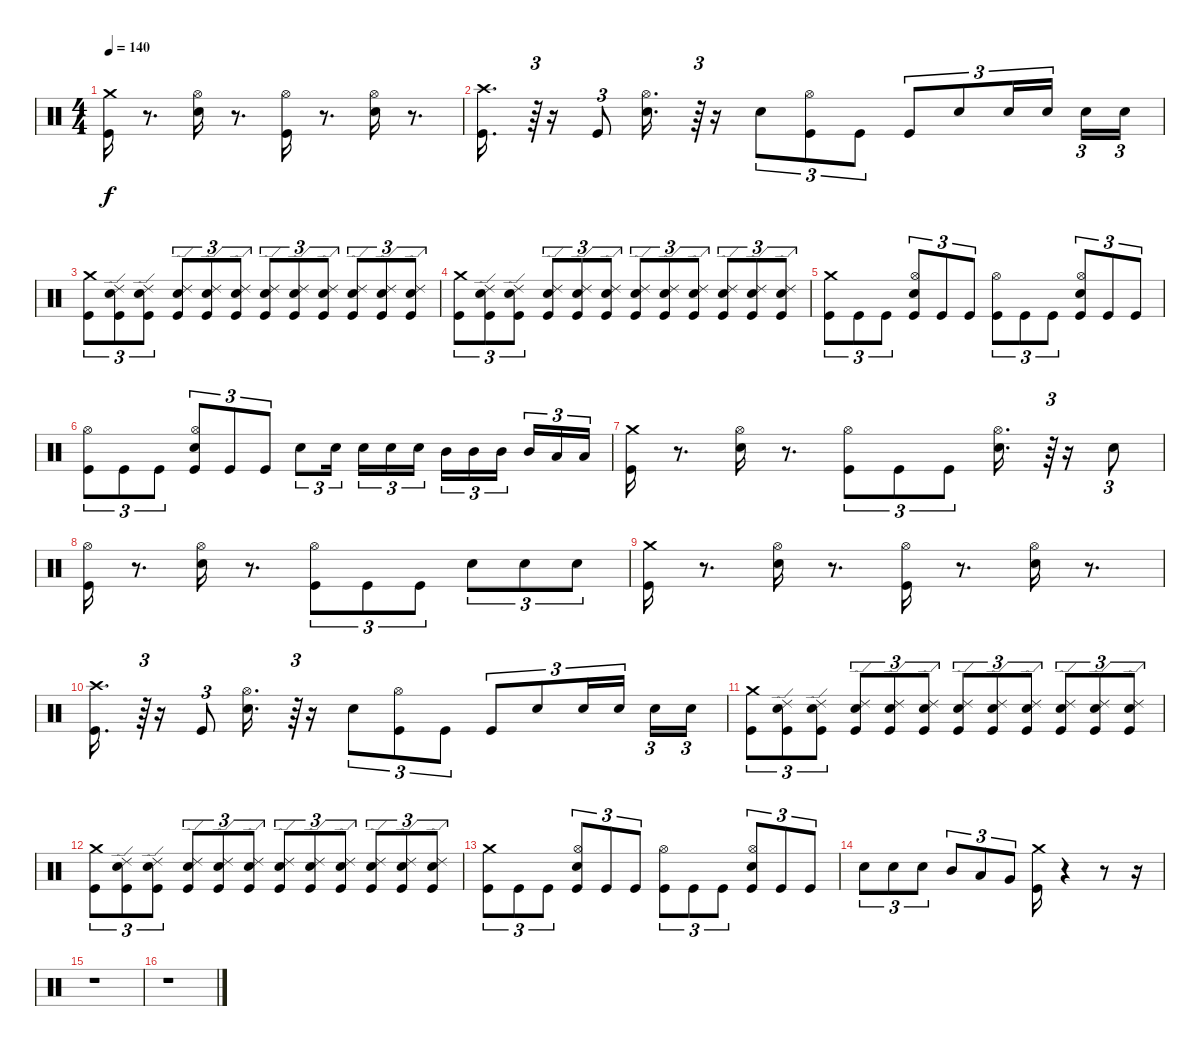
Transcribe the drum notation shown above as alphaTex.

\track "" {instrument percussion}
\staff {score}
\articulation defaults
\ts (4 4)
\tempo 140
\clef neutral
\ks c
("Crash medium (hit)" "Kick (hit)").16{dy f} r.8{d} ("Hi-Hat (open)" "Snare (hit) 2").16 r.8{d} ("Hi-Hat (open)" "Kick (hit)").16 r.8{d} ("Hi-Hat (open)" "Snare (hit) 2").16 r.8{d} |
("Crash high (hit)" "Kick (hit)").16{d} r.64{tu (3 2)} r.16 "Kick (hit)".8{tu (3 2)} ("Hi-Hat (open)" "Snare (hit) 2").16{d} r.64{tu (3 2)} r.16 "Snare (hit) 2".8{tu (3 2)} ("Hi-Hat (open)" "Kick (hit)").8{tu (3 2)} "Kick (hit)".8{tu (3 2)} "Kick (hit)".8{tu (3 2)} "Snare (hit) 2".8{tu (3 2)} "Snare (hit) 2".16{tu (3 2)} "Snare (hit) 2".16{tu (3 2) beam splitsecondary} "Snare (hit) 2".16{tu (3 2)} "Snare (hit) 2".16{tu (3 2)} |
("Kick (hit)" "Crash medium (hit)").8{tu (3 2)} ("Kick (hit)" "Ride (edge) 2" "Snare (hit) 2").8{tu (3 2)} ("Ride (edge) 2" "Kick (hit)" "Snare (hit) 2").8{tu (3 2)} ("Ride (edge) 2" "Kick (hit)" "Snare (hit) 2").8{tu (3 2)} ("Snare (hit) 2" "Kick (hit)" "Ride (edge) 2").8{tu (3 2)} ("Snare (hit) 2" "Kick (hit)" "Ride (edge) 2").8{tu (3 2)} ("Snare (hit) 2" "Ride (edge) 2" "Kick (hit)").8{tu (3 2)} ("Snare (hit) 2" "Kick (hit)" "Ride (edge) 2").8{tu (3 2)} ("Snare (hit) 2" "Ride (edge) 2" "Kick (hit)").8{tu (3 2)} ("Snare (hit) 2" "Kick (hit)" "Ride (edge) 2").8{tu (3 2)} ("Snare (hit) 2" "Ride (edge) 2" "Kick (hit)").8{tu (3 2)} ("Snare (hit) 2" "Ride (edge) 2" "Kick (hit)").8{tu (3 2)} |
("Kick (hit)" "Crash medium (hit)").8{tu (3 2)} ("Kick (hit)" "Ride (edge) 2" "Snare (hit) 2").8{tu (3 2)} ("Kick (hit)" "Ride (edge) 2" "Snare (hit) 2").8{tu (3 2)} ("Kick (hit)" "Ride (edge) 2" "Snare (hit) 2").8{tu (3 2)} ("Kick (hit)" "Snare (hit) 2" "Ride (edge) 2").8{tu (3 2)} ("Kick (hit)" "Snare (hit) 2" "Ride (edge) 2").8{tu (3 2)} ("Kick (hit)" "Snare (hit) 2" "Ride (edge) 2").8{tu (3 2)} ("Kick (hit)" "Snare (hit) 2" "Ride (edge) 2").8{tu (3 2)} ("Kick (hit)" "Snare (hit) 2" "Ride (edge) 2").8{tu (3 2)} ("Kick (hit)" "Snare (hit) 2" "Ride (edge) 2").8{tu (3 2)} ("Kick (hit)" "Snare (hit) 2" "Ride (edge) 2").8{tu (3 2)} ("Kick (hit)" "Snare (hit) 2" "Ride (edge) 2").8{tu (3 2)} |
("Crash medium (hit)" "Kick (hit)").8{tu (3 2)} "Kick (hit)".8{tu (3 2)} "Kick (hit)".8{tu (3 2)} ("Hi-Hat (open)" "Kick (hit)" "Snare (hit) 2").8{tu (3 2)} "Kick (hit)".8{tu (3 2)} "Kick (hit)".8{tu (3 2)} ("Hi-Hat (open)" "Kick (hit)").8{tu (3 2)} "Kick (hit)".8{tu (3 2)} "Kick (hit)".8{tu (3 2)} ("Hi-Hat (open)" "Snare (hit) 2" "Kick (hit)").8{tu (3 2)} "Kick (hit)".8{tu (3 2)} "Kick (hit)".8{tu (3 2)} |
("Hi-Hat (open)" "Kick (hit)").8{tu (3 2)} "Kick (hit)".8{tu (3 2)} "Kick (hit)".8{tu (3 2)} ("Hi-Hat (open)" "Kick (hit)" "Snare (hit) 2").8{tu (3 2)} "Kick (hit)".8{tu (3 2)} "Kick (hit)".8{tu (3 2)} "Snare (hit) 2".8{tu (3 2)} "Snare (hit) 2".16{tu (3 2) beam splitsecondary} "Snare (hit) 2".16{tu (3 2)} "Snare (hit) 2".16{tu (3 2)} "Snare (hit) 2".16{tu (3 2)} "Mid Tom (hit)".16{tu (3 2)} "Mid Tom (hit)".16{tu (3 2)} "Mid Tom (hit)".16{tu (3 2) beam splitsecondary} "Mid Tom (hit)".16{tu (3 2)} "Low Tom (hit)".16{tu (3 2)} "Low Tom (hit)".16{tu (3 2)} |
("Crash medium (hit)" "Kick (hit)").16 r.8{d} ("Hi-Hat (open)" "Snare (hit) 2").16 r.8{d} ("Hi-Hat (open)" "Kick (hit)").8{tu (3 2)} "Kick (hit)".8{tu (3 2)} "Kick (hit)".8{tu (3 2)} ("Hi-Hat (open)" "Snare (hit) 2").16{d} r.64{tu (3 2)} r.16 "Snare (hit) 2".8{tu (3 2)} |
("Hi-Hat (open)" "Kick (hit)").16 r.8{d} ("Hi-Hat (open)" "Snare (hit) 2").16 r.8{d} ("Hi-Hat (open)" "Kick (hit)").8{tu (3 2)} "Kick (hit)".8{tu (3 2)} "Kick (hit)".8{tu (3 2)} "Snare (hit) 2".8{tu (3 2)} "Snare (hit) 2".8{tu (3 2)} "Snare (hit) 2".8{tu (3 2)} |
("Crash medium (hit)" "Kick (hit)").16 r.8{d} ("Hi-Hat (open)" "Snare (hit) 2").16 r.8{d} ("Hi-Hat (open)" "Kick (hit)").16 r.8{d} ("Hi-Hat (open)" "Snare (hit) 2").16 r.8{d} |
("Crash high (hit)" "Kick (hit)").16{d} r.64{tu (3 2)} r.16 "Kick (hit)".8{tu (3 2)} ("Hi-Hat (open)" "Snare (hit) 2").16{d} r.64{tu (3 2)} r.16 "Snare (hit) 2".8{tu (3 2)} ("Hi-Hat (open)" "Kick (hit)").8{tu (3 2)} "Kick (hit)".8{tu (3 2)} "Kick (hit)".8{tu (3 2)} "Snare (hit) 2".8{tu (3 2)} "Snare (hit) 2".16{tu (3 2)} "Snare (hit) 2".16{tu (3 2) beam splitsecondary} "Snare (hit) 2".16{tu (3 2)} "Snare (hit) 2".16{tu (3 2)} |
("Kick (hit)" "Crash medium (hit)").8{tu (3 2)} ("Kick (hit)" "Ride (edge) 2" "Snare (hit) 2").8{tu (3 2)} ("Ride (edge) 2" "Kick (hit)" "Snare (hit) 2").8{tu (3 2)} ("Ride (edge) 2" "Kick (hit)" "Snare (hit) 2").8{tu (3 2)} ("Snare (hit) 2" "Kick (hit)" "Ride (edge) 2").8{tu (3 2)} ("Snare (hit) 2" "Kick (hit)" "Ride (edge) 2").8{tu (3 2)} ("Snare (hit) 2" "Ride (edge) 2" "Kick (hit)").8{tu (3 2)} ("Snare (hit) 2" "Kick (hit)" "Ride (edge) 2").8{tu (3 2)} ("Snare (hit) 2" "Ride (edge) 2" "Kick (hit)").8{tu (3 2)} ("Snare (hit) 2" "Kick (hit)" "Ride (edge) 2").8{tu (3 2)} ("Snare (hit) 2" "Ride (edge) 2" "Kick (hit)").8{tu (3 2)} ("Snare (hit) 2" "Ride (edge) 2" "Kick (hit)").8{tu (3 2)} |
("Kick (hit)" "Crash medium (hit)").8{tu (3 2)} ("Kick (hit)" "Ride (edge) 2" "Snare (hit) 2").8{tu (3 2)} ("Kick (hit)" "Ride (edge) 2" "Snare (hit) 2").8{tu (3 2)} ("Kick (hit)" "Ride (edge) 2" "Snare (hit) 2").8{tu (3 2)} ("Kick (hit)" "Snare (hit) 2" "Ride (edge) 2").8{tu (3 2)} ("Kick (hit)" "Snare (hit) 2" "Ride (edge) 2").8{tu (3 2)} ("Kick (hit)" "Snare (hit) 2" "Ride (edge) 2").8{tu (3 2)} ("Kick (hit)" "Snare (hit) 2" "Ride (edge) 2").8{tu (3 2)} ("Kick (hit)" "Snare (hit) 2" "Ride (edge) 2").8{tu (3 2)} ("Kick (hit)" "Snare (hit) 2" "Ride (edge) 2").8{tu (3 2)} ("Kick (hit)" "Snare (hit) 2" "Ride (edge) 2").8{tu (3 2)} ("Kick (hit)" "Snare (hit) 2" "Ride (edge) 2").8{tu (3 2)} |
("Crash medium (hit)" "Kick (hit)").8{tu (3 2)} "Kick (hit)".8{tu (3 2)} "Kick (hit)".8{tu (3 2)} ("Hi-Hat (open)" "Kick (hit)" "Snare (hit) 2").8{tu (3 2)} "Kick (hit)".8{tu (3 2)} "Kick (hit)".8{tu (3 2)} ("Hi-Hat (open)" "Kick (hit)").8{tu (3 2)} "Kick (hit)".8{tu (3 2)} "Kick (hit)".8{tu (3 2)} ("Hi-Hat (open)" "Snare (hit) 2" "Kick (hit)").8{tu (3 2)} "Kick (hit)".8{tu (3 2)} "Kick (hit)".8{tu (3 2)} |
"Snare (hit) 2".8{tu (3 2)} "Snare (hit) 2".8{tu (3 2)} "Snare (hit) 2".8{tu (3 2)} "Mid Tom (hit)".8{tu (3 2)} "Low Tom (hit)".8{tu (3 2)} "Very Low Tom (hit)".8{tu (3 2)} ("Kick (hit)" "Crash medium (hit)").16 r.4 r.8 r.16 |
r.1 |
r.1
